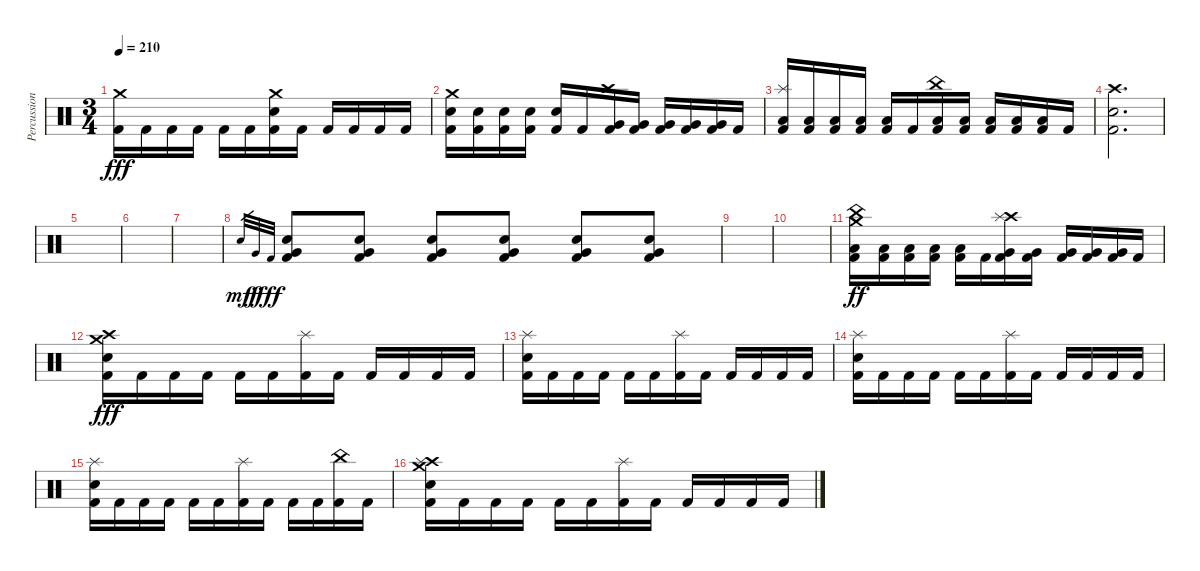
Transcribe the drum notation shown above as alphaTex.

\track ("Percussions" "Percussion") {instrument percussion}
\staff {score}
\articulation defaults
\ts (3 4)
\tempo 210
\clef neutral
\ks c
("Crash medium (hit)" "Kick (hit) 2").16{dy fff} "Kick (hit) 2".16 "Kick (hit) 2".16 "Kick (hit) 2".16 "Kick (hit) 2".16 "Kick (hit) 2".16 ("Electric Snare (hit)" "Crash medium (hit)" "Kick (hit) 2").16 "Kick (hit) 2".16 "Kick (hit) 2".16 "Kick (hit) 2".16 "Kick (hit) 2".16 "Kick (hit) 2".16 |
("Crash medium (hit)" "Electric Snare (hit)" "Kick (hit) 2").16 ("Electric Snare (hit)" "Kick (hit) 2").16 ("Electric Snare (hit)" "Kick (hit) 2").16 ("Electric Snare (hit)" "Kick (hit) 2").16 ("Electric Snare (hit)" "Kick (hit) 2").16 "Kick (hit) 2".16 ("Crash high (hit)" "Very Low Tom (hit)" "Kick (hit) 2").16 ("Very Low Tom (hit)" "Kick (hit) 2").16 ("Very Low Tom (hit)" "Kick (hit) 2").16 ("Very Low Tom (hit)" "Kick (hit) 2").16 ("Very Low Tom (hit)" "Kick (hit) 2").16 "Kick (hit) 2".16 |
("Splash (hit)" "Low Tom (hit)" "Kick (hit) 2").16 ("Low Tom (hit)" "Kick (hit) 2").16 ("Low Tom (hit)" "Kick (hit) 2").16 ("Low Tom (hit)" "Kick (hit) 2").16 ("Low Tom (hit)" "Kick (hit) 2").16 "Kick (hit) 2".16 ("China (hit)" "Low Floor Tom (hit)" "Kick (hit) 2").16 ("Low Floor Tom (hit)" "Kick (hit) 2").16 ("Low Floor Tom (hit)" "Kick (hit) 2").16 ("Low Floor Tom (hit)" "Kick (hit) 2").16 ("Low Floor Tom (hit)" "Kick (hit) 2").16 "Kick (hit) 2".16 |
("Crash high (hit)" "Electric Snare (hit)" "Kick (hit) 2").2{d} |
|
|
|
"Electric Snare (hit)".32{gr dy mf} "Very Low Tom (hit)".32{gr dy f} "Kick (hit) 2".32{gr dy fff} ("Electric Snare (hit)" "Very Low Tom (hit)" "Kick (hit) 2").8 ("Electric Snare (hit)" "Very Low Tom (hit)" "Kick (hit) 2").8 ("Electric Snare (hit)" "Very Low Tom (hit)" "Kick (hit) 2").8 ("Electric Snare (hit)" "Very Low Tom (hit)" "Kick (hit) 2").8 ("Electric Snare (hit)" "Very Low Tom (hit)" "Kick (hit) 2").8 ("Electric Snare (hit)" "Very Low Tom (hit)" "Kick (hit) 2").8 |
|
|
("Crash medium (hit)" "China (hit)" "Low Tom (hit)" "Kick (hit) 2").16{dy ff} ("Low Tom (hit)" "Kick (hit) 2").16 ("Low Tom (hit)" "Kick (hit) 2").16 ("Low Tom (hit)" "Kick (hit) 2").16 ("Low Tom (hit)" "Kick (hit) 2").16 "Kick (hit) 2".16 ("Crash high (hit)" "Splash (hit)" "Very Low Tom (hit)" "Kick (hit) 2").16 ("Very Low Tom (hit)" "Kick (hit) 2").16 ("Very Low Tom (hit)" "Kick (hit) 2").16 ("Very Low Tom (hit)" "Kick (hit) 2").16 ("Very Low Tom (hit)" "Kick (hit) 2").16 "Kick (hit) 2".16 |
("Crash medium (hit)" "Crash high (hit)" "Electric Snare (hit)" "Kick (hit) 2").16{dy fff} "Kick (hit) 2".16 "Kick (hit) 2".16 "Kick (hit) 2".16 "Kick (hit) 2".16 "Kick (hit) 2".16 ("Splash (hit)" "Kick (hit) 2").16 "Kick (hit) 2".16 "Kick (hit) 2".16 "Kick (hit) 2".16 "Kick (hit) 2".16 "Kick (hit) 2".16 |
("Electric Snare (hit)" "Splash (hit)" "Kick (hit) 2").16 "Kick (hit) 2".16 "Kick (hit) 2".16 "Kick (hit) 2".16 "Kick (hit) 2".16 "Kick (hit) 2".16 ("Splash (hit)" "Kick (hit) 2").16 "Kick (hit) 2".16 "Kick (hit) 2".16 "Kick (hit) 2".16 "Kick (hit) 2".16 "Kick (hit) 2".16 |
("Electric Snare (hit)" "Splash (hit)" "Kick (hit) 2").16 "Kick (hit) 2".16 "Kick (hit) 2".16 "Kick (hit) 2".16 "Kick (hit) 2".16 "Kick (hit) 2".16 ("Splash (hit)" "Kick (hit) 2").16 "Kick (hit) 2".16 "Kick (hit) 2".16 "Kick (hit) 2".16 "Kick (hit) 2".16 "Kick (hit) 2".16 |
("Electric Snare (hit)" "Splash (hit)" "Kick (hit) 2").16 "Kick (hit) 2".16 "Kick (hit) 2".16 "Kick (hit) 2".16 "Kick (hit) 2".16 "Kick (hit) 2".16 ("Splash (hit)" "Kick (hit) 2").16 "Kick (hit) 2".16 "Kick (hit) 2".16 "Kick (hit) 2".16 ("China (hit)" "Kick (hit) 2").16 "Kick (hit) 2".16 |
("Crash high (hit)" "Crash medium (hit)" "Electric Snare (hit)" "Splash (hit)" "Kick (hit) 2").16 "Kick (hit) 2".16 "Kick (hit) 2".16 "Kick (hit) 2".16 "Kick (hit) 2".16 "Kick (hit) 2".16 ("Splash (hit)" "Kick (hit) 2").16 "Kick (hit) 2".16 "Kick (hit) 2".16 "Kick (hit) 2".16 "Kick (hit) 2".16 "Kick (hit) 2".16
